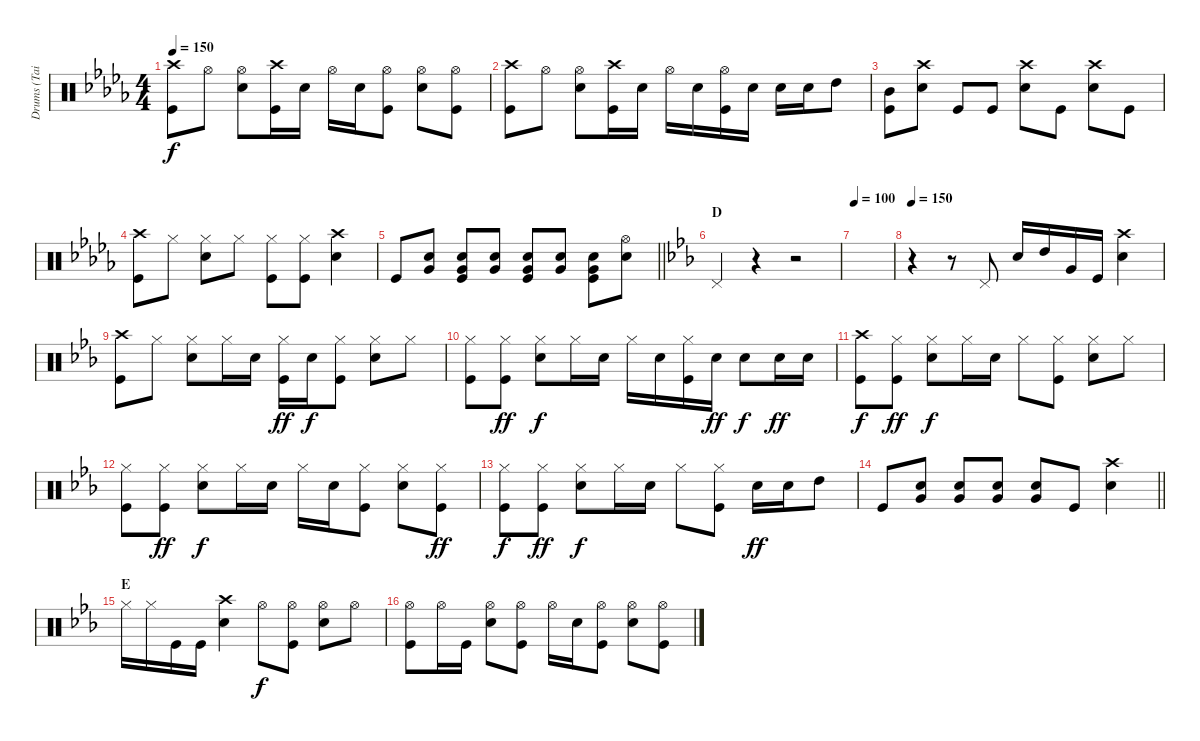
\track ("Drums (Tainaka Ritsu)" "Drums (Tai") {instrument percussion}
\staff {score}
\articulation defaults
\ts (4 4)
\tempo 150
\clef neutral
\ks db
("Crash high (hit)" "Kick (hit)").8{dy f} "Hi-Hat (open)".8 ("Hi-Hat (open)" "Snare (hit) 2").8 ("Crash high (hit)" "Kick (hit)").16 "Snare (hit) 2".16 "Hi-Hat (open)".16 "Snare (hit) 2".16 ("Hi-Hat (open)" "Kick (hit)").8 ("Hi-Hat (open)" "Snare (hit) 2").8 ("Hi-Hat (open)" "Kick (hit)").8 |
("Crash high (hit)" "Kick (hit)").8 "Hi-Hat (open)".8 ("Hi-Hat (open)" "Snare (hit) 2").8 ("Crash high (hit)" "Kick (hit)").16 "Snare (hit) 2".16 "Hi-Hat (open)".16 "Snare (hit) 2".16 ("Hi-Hat (open)" "Kick (hit)").16 "Snare (hit) 2".16 "Snare (hit) 2".16 "Snare (hit) 2".16 "High Tom (hit)".8 |
("Mid Tom (hit)" "Kick (hit)").8 ("Crash high (hit)" "Snare (hit) 2").8 "Kick (hit)".8 "Kick (hit)".8 ("Crash high (hit)" "Snare (hit) 2").8 "Kick (hit)".8 ("Crash high (hit)" "Snare (hit) 2").8 "Kick (hit)".8 |
("Crash high (hit)" "Kick (hit)").8 "Hi-Hat (closed)".8 ("Hi-Hat (closed)" "Snare (hit) 2").8 "Hi-Hat (closed)".8 ("Hi-Hat (closed)" "Kick (hit)").8 ("Hi-Hat (closed)" "Kick (hit)").8 ("Crash high (hit)" "Snare (hit) 2").4 |
\barLineRight lightlight "Kick (hit)".8
("Snare (hit) 2" "Very Low Tom (hit)").8 ("Snare (hit) 2" "Very Low Tom (hit)" "Kick (hit)").8 ("Snare (hit) 2" "Very Low Tom (hit)").8 ("Snare (hit) 2" "Very Low Tom (hit)" "Kick (hit)").8 ("Snare (hit) 2" "Very Low Tom (hit)").8 ("Snare (hit) 2" "Very Low Tom (hit)" "Kick (hit)").8 ("Hi-Hat (open)" "Snare (hit) 2").8 |
\section ("" "D")
\ks eb "Pedal Hi-Hat (hit)".4
r.4 r.2 |
\tempo 100
|
\tempo 150
r.4 r.8 "Pedal Hi-Hat (hit)".8 "Snare (hit) 2".16 "High Tom (hit)".16 "Very Low Tom (hit)".16 "Kick (hit)".16 ("Crash high (hit)" "Snare (hit) 2").4 |
("Crash high (hit)" "Kick (hit)").8 "Hi-Hat (closed)".8 ("Hi-Hat (closed)" "Snare (hit) 2").8 "Hi-Hat (closed)".16 "Snare (hit) 2".16 ("Hi-Hat (closed)" "Kick (hit)").16{dy ff} "Snare (hit) 2".16{dy f} ("Hi-Hat (closed)" "Kick (hit)").8 ("Hi-Hat (closed)" "Snare (hit) 2").8 "Hi-Hat (closed)".8 |
("Hi-Hat (closed)" "Kick (hit)").8 ("Hi-Hat (closed)" "Kick (hit)").8{dy ff} ("Hi-Hat (closed)" "Snare (hit) 2").8{dy f} "Hi-Hat (closed)".16 "Snare (hit) 2".16 "Hi-Hat (closed)".16 "Snare (hit) 2".16 ("Hi-Hat (closed)" "Kick (hit)").16 "Snare (hit) 2".16{dy ff} "Snare (hit) 2".8{dy f} "Snare (hit) 2".16{dy ff} "Snare (hit) 2".16 |
("Crash high (hit)" "Kick (hit)").8{dy f} ("Hi-Hat (closed)" "Kick (hit)").8{dy ff} ("Hi-Hat (closed)" "Snare (hit) 2").8{dy f} "Hi-Hat (closed)".16 "Snare (hit) 2".16 "Hi-Hat (closed)".8 ("Hi-Hat (closed)" "Kick (hit)").8 ("Hi-Hat (closed)" "Snare (hit) 2").8 "Hi-Hat (closed)".8 |
("Hi-Hat (closed)" "Kick (hit)").8 ("Hi-Hat (closed)" "Kick (hit)").8{dy ff} ("Hi-Hat (closed)" "Snare (hit) 2").8{dy f} "Hi-Hat (closed)".16 "Snare (hit) 2".16 "Hi-Hat (closed)".16 "Snare (hit) 2".16 ("Hi-Hat (closed)" "Kick (hit)").8 ("Hi-Hat (closed)" "Snare (hit) 2").8 ("Hi-Hat (closed)" "Kick (hit)").8{dy ff} |
("Hi-Hat (closed)" "Kick (hit)").8{dy f} ("Hi-Hat (closed)" "Kick (hit)").8{dy ff} ("Hi-Hat (closed)" "Snare (hit) 2").8{dy f} "Hi-Hat (closed)".16 "Snare (hit) 2".16 "Hi-Hat (closed)".8 ("Hi-Hat (closed)" "Kick (hit)").8 "Snare (hit) 2".16{dy ff} "Snare (hit) 2".16 "High Tom (hit)".8 |
\barLineRight lightlight "Kick (hit)".8
("Snare (hit) 2" "Very Low Tom (hit)").8 ("Snare (hit) 2" "Very Low Tom (hit)").8 ("Snare (hit) 2" "Very Low Tom (hit)").8 ("Snare (hit) 2" "Very Low Tom (hit)").8 "Kick (hit)".8 ("Crash high (hit)" "Snare (hit) 2").4 |
\section ("" "E")
"Hi-Hat (closed)".16 "Hi-Hat (closed)".16 "Kick (hit)".16 "Kick (hit)".16 ("Crash high (hit)" "Snare (hit) 2").4 "Hi-Hat (open)".8{dy f} ("Hi-Hat (open)" "Kick (hit)").8 ("Hi-Hat (open)" "Snare (hit) 2").8 "Hi-Hat (open)".8 |
("Hi-Hat (open)" "Kick (hit)").8 "Hi-Hat (open)".16 "Kick (hit)".16 ("Hi-Hat (open)" "Snare (hit) 2").8 ("Hi-Hat (open)" "Kick (hit)").8 "Hi-Hat (open)".16 "Snare (hit) 2".16 ("Hi-Hat (open)" "Kick (hit)").8 ("Hi-Hat (open)" "Snare (hit) 2").8 ("Hi-Hat (open)" "Kick (hit)").8
